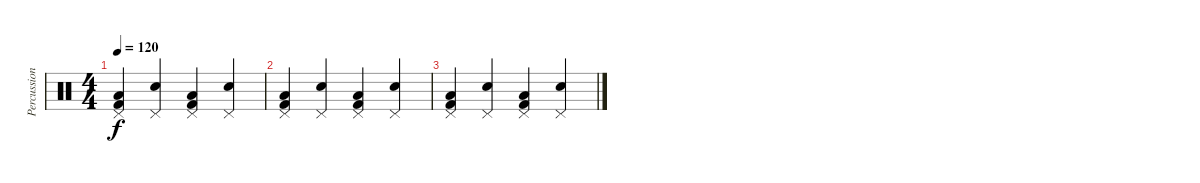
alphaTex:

\track ("Percussions" "Percussion") {instrument percussion}
\staff {score}
\articulation defaults
\ts (4 4)
\tempo 120
\clef neutral
\ks c
("Pedal Hi-Hat (hit)" "Kick (hit) 2" "Low Floor Tom (hit)").4{dy f} ("Pedal Hi-Hat (hit)" "Electric Snare (hit)").4 ("Pedal Hi-Hat (hit)" "Kick (hit) 2" "Low Floor Tom (hit)").4 ("Pedal Hi-Hat (hit)" "Electric Snare (hit)").4 |
("Pedal Hi-Hat (hit)" "Kick (hit) 2" "Low Floor Tom (hit)").4 ("Pedal Hi-Hat (hit)" "Electric Snare (hit)").4 ("Pedal Hi-Hat (hit)" "Kick (hit) 2" "Low Floor Tom (hit)").4 ("Pedal Hi-Hat (hit)" "Electric Snare (hit)").4 |
("Pedal Hi-Hat (hit)" "Kick (hit) 2" "Low Floor Tom (hit)").4 ("Pedal Hi-Hat (hit)" "Electric Snare (hit)").4 ("Pedal Hi-Hat (hit)" "Kick (hit) 2" "Low Floor Tom (hit)").4 ("Pedal Hi-Hat (hit)" "Electric Snare (hit)").4
